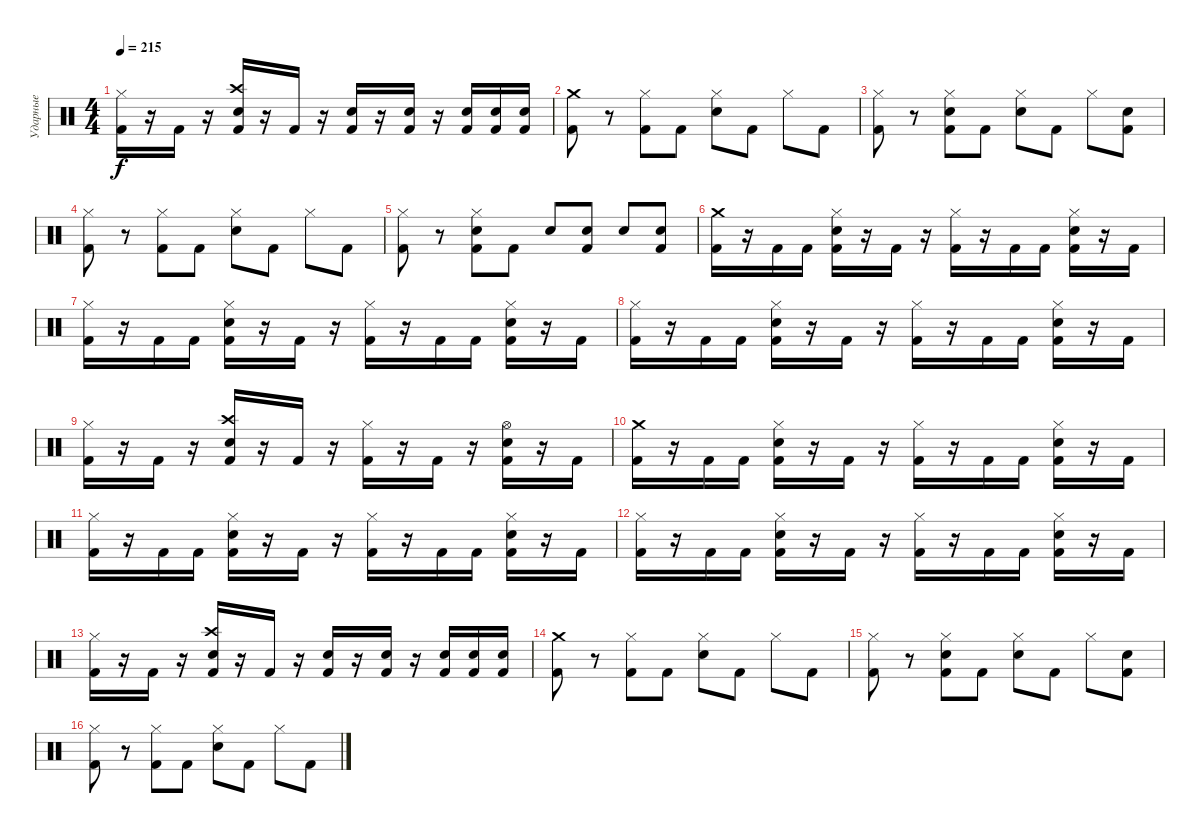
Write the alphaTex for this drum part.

\track ("Ударные" "Ударные") {instrument percussion}
\staff {score}
\articulation defaults
\ts (4 4)
\tempo 215
\clef neutral
\ks c
("Hi-Hat (closed)" "Kick (hit) 2").16{dy f} r.16 "Kick (hit) 2".16 r.16 ("Crash high (hit)" "Snare (hit) 2" "Kick (hit) 2").16 r.16 "Kick (hit) 2".16 r.16 ("Snare (hit) 2" "Kick (hit) 2").16 r.16 ("Snare (hit) 2" "Kick (hit) 2").16 r.16 ("Snare (hit) 2" "Kick (hit) 2").16 ("Snare (hit) 2" "Kick (hit) 2").16 ("Snare (hit) 2" "Kick (hit) 2").16 |
("Crash medium (hit)" "Kick (hit) 2").8 r.8 ("Hi-Hat (closed)" "Kick (hit) 2").8 "Kick (hit) 2".8 ("Hi-Hat (closed)" "Snare (hit) 2").8 "Kick (hit) 2".8 "Hi-Hat (closed)".8 "Kick (hit) 2".8 |
("Hi-Hat (closed)" "Kick (hit) 2").8 r.8 ("Hi-Hat (closed)" "Snare (hit) 2" "Kick (hit) 2").8 "Kick (hit) 2".8 ("Hi-Hat (closed)" "Snare (hit) 2").8 "Kick (hit) 2".8 "Hi-Hat (closed)".8 ("Snare (hit) 2" "Kick (hit) 2").8 |
("Hi-Hat (closed)" "Kick (hit) 2").8 r.8 ("Hi-Hat (closed)" "Kick (hit) 2").8 "Kick (hit) 2".8 ("Hi-Hat (closed)" "Snare (hit) 2").8 "Kick (hit) 2".8 "Hi-Hat (closed)".8 "Kick (hit) 2".8 |
("Hi-Hat (closed)" "Kick (hit) 2").8 r.8 ("Hi-Hat (closed)" "Snare (hit) 2" "Kick (hit) 2").8 "Kick (hit) 2".8 "Snare (hit) 2".8 ("Snare (hit) 2" "Kick (hit) 2").8 "Snare (hit) 2".8 ("Snare (hit) 2" "Kick (hit) 2").8 |
("Crash medium (hit)" "Kick (hit) 2").16 r.16 "Kick (hit) 2".16 "Kick (hit) 2".16 ("Hi-Hat (closed)" "Snare (hit) 2" "Kick (hit) 2").16 r.16 "Kick (hit) 2".16 r.16 ("Hi-Hat (closed)" "Kick (hit) 2").16 r.16 "Kick (hit) 2".16 "Kick (hit) 2".16 ("Hi-Hat (closed)" "Snare (hit) 2" "Kick (hit) 2").16 r.16 "Kick (hit) 2".16 |
("Hi-Hat (closed)" "Kick (hit) 2").16 r.16 "Kick (hit) 2".16 "Kick (hit) 2".16 ("Hi-Hat (closed)" "Snare (hit) 2" "Kick (hit) 2").16 r.16 "Kick (hit) 2".16 r.16 ("Hi-Hat (closed)" "Kick (hit) 2").16 r.16 "Kick (hit) 2".16 "Kick (hit) 2".16 ("Hi-Hat (closed)" "Snare (hit) 2" "Kick (hit) 2").16 r.16 "Kick (hit) 2".16 |
("Hi-Hat (closed)" "Kick (hit) 2").16 r.16 "Kick (hit) 2".16 "Kick (hit) 2".16 ("Hi-Hat (closed)" "Snare (hit) 2" "Kick (hit) 2").16 r.16 "Kick (hit) 2".16 r.16 ("Hi-Hat (closed)" "Kick (hit) 2").16 r.16 "Kick (hit) 2".16 "Kick (hit) 2".16 ("Hi-Hat (closed)" "Snare (hit) 2" "Kick (hit) 2").16 r.16 "Kick (hit) 2".16 |
("Hi-Hat (closed)" "Kick (hit) 2").16 r.16 "Kick (hit) 2".16 r.16 ("Crash high (hit)" "Snare (hit) 2" "Kick (hit) 2").16 r.16 "Kick (hit) 2".16 r.16 ("Hi-Hat (closed)" "Kick (hit) 2").16 r.16 "Kick (hit) 2".16 r.16 ("Hi-Hat (open)" "Snare (hit) 2" "Kick (hit) 2").16 r.16 "Kick (hit) 2".16 |
("Crash medium (hit)" "Kick (hit) 2").16 r.16 "Kick (hit) 2".16 "Kick (hit) 2".16 ("Hi-Hat (closed)" "Snare (hit) 2" "Kick (hit) 2").16 r.16 "Kick (hit) 2".16 r.16 ("Hi-Hat (closed)" "Kick (hit) 2").16 r.16 "Kick (hit) 2".16 "Kick (hit) 2".16 ("Hi-Hat (closed)" "Snare (hit) 2" "Kick (hit) 2").16 r.16 "Kick (hit) 2".16 |
("Hi-Hat (closed)" "Kick (hit) 2").16 r.16 "Kick (hit) 2".16 "Kick (hit) 2".16 ("Hi-Hat (closed)" "Snare (hit) 2" "Kick (hit) 2").16 r.16 "Kick (hit) 2".16 r.16 ("Hi-Hat (closed)" "Kick (hit) 2").16 r.16 "Kick (hit) 2".16 "Kick (hit) 2".16 ("Hi-Hat (closed)" "Snare (hit) 2" "Kick (hit) 2").16 r.16 "Kick (hit) 2".16 |
("Hi-Hat (closed)" "Kick (hit) 2").16 r.16 "Kick (hit) 2".16 "Kick (hit) 2".16 ("Hi-Hat (closed)" "Snare (hit) 2" "Kick (hit) 2").16 r.16 "Kick (hit) 2".16 r.16 ("Hi-Hat (closed)" "Kick (hit) 2").16 r.16 "Kick (hit) 2".16 "Kick (hit) 2".16 ("Hi-Hat (closed)" "Snare (hit) 2" "Kick (hit) 2").16 r.16 "Kick (hit) 2".16 |
("Hi-Hat (closed)" "Kick (hit) 2").16 r.16 "Kick (hit) 2".16 r.16 ("Crash high (hit)" "Snare (hit) 2" "Kick (hit) 2").16 r.16 "Kick (hit) 2".16 r.16 ("Snare (hit) 2" "Kick (hit) 2").16 r.16 ("Snare (hit) 2" "Kick (hit) 2").16 r.16 ("Snare (hit) 2" "Kick (hit) 2").16 ("Snare (hit) 2" "Kick (hit) 2").16 ("Snare (hit) 2" "Kick (hit) 2").16 |
("Crash medium (hit)" "Kick (hit) 2").8 r.8 ("Hi-Hat (closed)" "Kick (hit) 2").8 "Kick (hit) 2".8 ("Hi-Hat (closed)" "Snare (hit) 2").8 "Kick (hit) 2".8 "Hi-Hat (closed)".8 "Kick (hit) 2".8 |
("Hi-Hat (closed)" "Kick (hit) 2").8 r.8 ("Hi-Hat (closed)" "Snare (hit) 2" "Kick (hit) 2").8 "Kick (hit) 2".8 ("Hi-Hat (closed)" "Snare (hit) 2").8 "Kick (hit) 2".8 "Hi-Hat (closed)".8 ("Snare (hit) 2" "Kick (hit) 2").8 |
("Hi-Hat (closed)" "Kick (hit) 2").8 r.8 ("Hi-Hat (closed)" "Kick (hit) 2").8 "Kick (hit) 2".8 ("Hi-Hat (closed)" "Snare (hit) 2").8 "Kick (hit) 2".8 "Hi-Hat (closed)".8 "Kick (hit) 2".8
